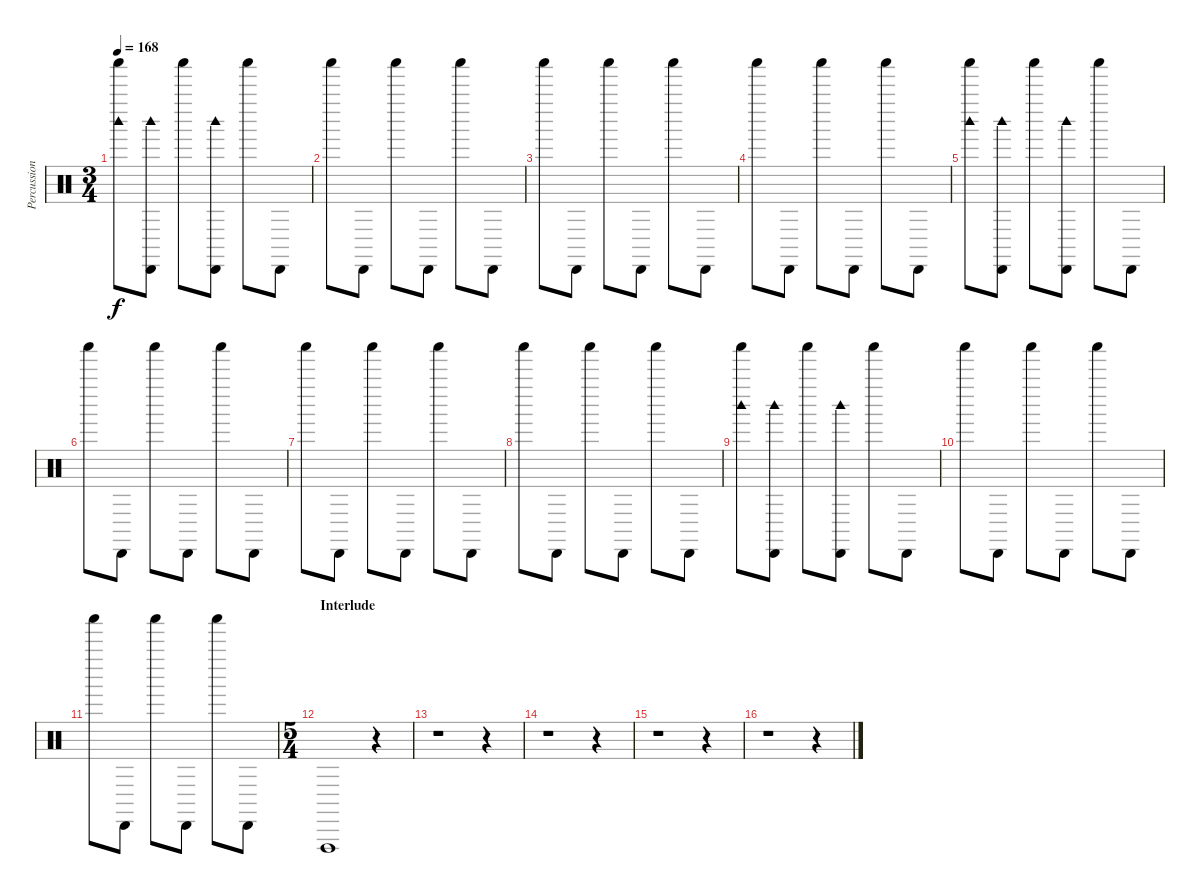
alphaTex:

\track ("Percussion" "Percussion") {instrument percussion}
\staff {score}
\articulation defaults
\ts (3 4)
\tempo 168
\clef neutral
\ks c
("Shaker (hit)" "Woodblock high (hit)").8{dy f} ("Cabasa (hit)" "Woodblock high (hit)").8 "Shaker (hit)".8 ("Cabasa (hit)" "Woodblock high (hit)").8 "Shaker (hit)".8 "Cabasa (hit)".8 |
"Shaker (hit)".8 "Cabasa (hit)".8 "Shaker (hit)".8 "Cabasa (hit)".8 "Shaker (hit)".8 "Cabasa (hit)".8 |
"Shaker (hit)".8 "Cabasa (hit)".8 "Shaker (hit)".8 "Cabasa (hit)".8 "Shaker (hit)".8 "Cabasa (hit)".8 |
"Shaker (hit)".8 "Cabasa (hit)".8 "Shaker (hit)".8 "Cabasa (hit)".8 "Shaker (hit)".8 "Cabasa (hit)".8 |
("Shaker (hit)" "Woodblock high (hit)").8 ("Cabasa (hit)" "Woodblock high (hit)").8 "Shaker (hit)".8 ("Cabasa (hit)" "Woodblock high (hit)").8 "Shaker (hit)".8 "Cabasa (hit)".8 |
"Shaker (hit)".8 "Cabasa (hit)".8 "Shaker (hit)".8 "Cabasa (hit)".8 "Shaker (hit)".8 "Cabasa (hit)".8 |
"Shaker (hit)".8 "Cabasa (hit)".8 "Shaker (hit)".8 "Cabasa (hit)".8 "Shaker (hit)".8 "Cabasa (hit)".8 |
"Shaker (hit)".8 "Cabasa (hit)".8 "Shaker (hit)".8 "Cabasa (hit)".8 "Shaker (hit)".8 "Cabasa (hit)".8 |
("Shaker (hit)" "Woodblock high (hit)").8 ("Cabasa (hit)" "Woodblock high (hit)").8 "Shaker (hit)".8 ("Cabasa (hit)" "Woodblock high (hit)").8 "Shaker (hit)".8 "Cabasa (hit)".8 |
"Shaker (hit)".8 "Cabasa (hit)".8 "Shaker (hit)".8 "Cabasa (hit)".8 "Shaker (hit)".8 "Cabasa (hit)".8 |
"Shaker (hit)".8 "Cabasa (hit)".8 "Shaker (hit)".8 "Cabasa (hit)".8 "Shaker (hit)".8 "Cabasa (hit)".8 |
\ts (5 4)
\section ("" "Interlude")
"Vibraslap (hit)".1 r.4 |
r.1 r.4 |
r.1 r.4 |
r.1 r.4 |
r.1 r.4
